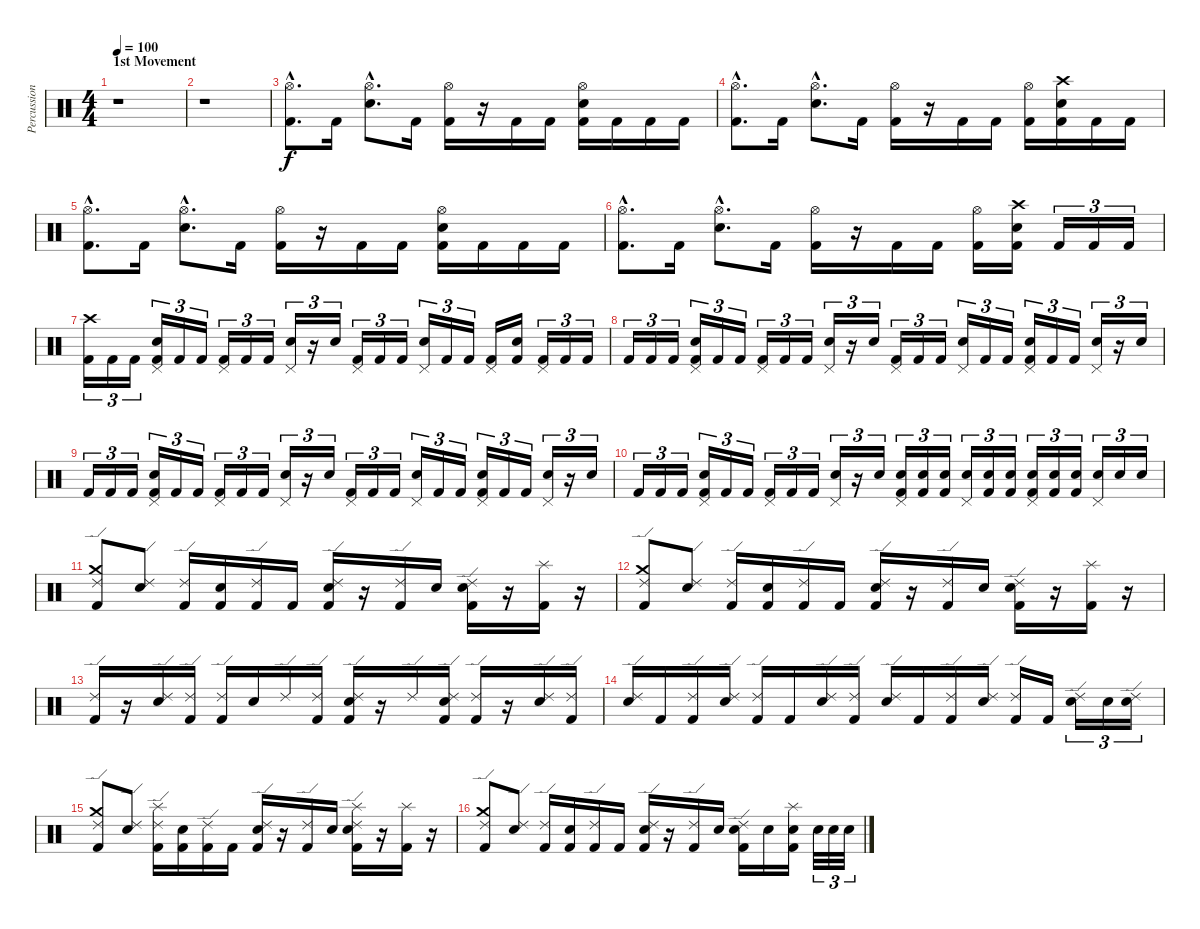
\track ("Percussion" "Percussion") {instrument percussion}
\staff {score}
\articulation defaults
\ts (4 4)
\section ("" "1st Movement")
\tempo 100
\clef neutral
\ks c
r.1{dy f} |
r.1 |
("Hi-Hat (open)"{hac} "Kick (hit) 2"{hac}).8{d} "Kick (hit) 2".16 ("Hi-Hat (open)"{hac} "Electric Snare (hit)"{hac}).8{d} "Kick (hit) 2".16 ("Hi-Hat (open)" "Kick (hit) 2").16 r.16 "Kick (hit) 2".16 "Kick (hit) 2".16 ("Hi-Hat (open)" "Electric Snare (hit)" "Kick (hit) 2").16 "Kick (hit) 2".16 "Kick (hit) 2".16 "Kick (hit) 2".16 |
("Hi-Hat (open)"{hac} "Kick (hit) 2"{hac}).8{d} "Kick (hit) 2".16 ("Hi-Hat (open)"{hac} "Electric Snare (hit)"{hac}).8{d} "Kick (hit) 2".16 ("Hi-Hat (open)" "Kick (hit) 2").16 r.16 "Kick (hit) 2".16 "Kick (hit) 2".16 ("Hi-Hat (open)" "Kick (hit) 2").16 ("Crash high (hit)" "Electric Snare (hit)" "Kick (hit) 2").16 "Kick (hit) 2".16 "Kick (hit) 2".16 |
("Hi-Hat (open)"{hac} "Kick (hit) 2"{hac}).8{d} "Kick (hit) 2".16 ("Hi-Hat (open)"{hac} "Electric Snare (hit)"{hac}).8{d} "Kick (hit) 2".16 ("Hi-Hat (open)" "Kick (hit) 2").16 r.16 "Kick (hit) 2".16 "Kick (hit) 2".16 ("Hi-Hat (open)" "Electric Snare (hit)" "Kick (hit) 2").16 "Kick (hit) 2".16 "Kick (hit) 2".16 "Kick (hit) 2".16 |
("Hi-Hat (open)"{hac} "Kick (hit) 2"{hac}).8{d} "Kick (hit) 2".16 ("Hi-Hat (open)"{hac} "Electric Snare (hit)"{hac}).8{d} "Kick (hit) 2".16 ("Hi-Hat (open)" "Kick (hit) 2").16 r.16 "Kick (hit) 2".16 "Kick (hit) 2".16 ("Hi-Hat (open)" "Kick (hit) 2").16 ("Crash high (hit)" "Electric Snare (hit)" "Kick (hit) 2").16 "Kick (hit) 2".16{tu (3 2)} "Kick (hit) 2".16{tu (3 2)} "Kick (hit) 2".16{tu (3 2)} |
("Crash high (hit)" "Kick (hit) 2").16{tu (3 2)} "Kick (hit) 2".16{tu (3 2)} "Kick (hit) 2".16{tu (3 2)} ("Pedal Hi-Hat (hit)" "Electric Snare (hit)" "Kick (hit) 2").16{tu (3 2)} "Kick (hit) 2".16{tu (3 2)} "Kick (hit) 2".16{tu (3 2)} ("Pedal Hi-Hat (hit)" "Kick (hit) 2").16{tu (3 2)} "Kick (hit) 2".16{tu (3 2)} "Kick (hit) 2".16{tu (3 2)} ("Pedal Hi-Hat (hit)" "Electric Snare (hit)").16{tu (3 2)} r.16{tu (3 2)} "Electric Snare (hit)".16{tu (3 2)} ("Pedal Hi-Hat (hit)" "Kick (hit) 2").16{tu (3 2)} "Kick (hit) 2".16{tu (3 2)} "Kick (hit) 2".16{tu (3 2)} ("Pedal Hi-Hat (hit)" "Electric Snare (hit)").16{tu (3 2)} "Kick (hit) 2".16{tu (3 2)} "Kick (hit) 2".16{tu (3 2)} ("Pedal Hi-Hat (hit)" "Kick (hit) 2").16 ("Electric Snare (hit)" "Kick (hit) 2").16 ("Pedal Hi-Hat (hit)" "Kick (hit) 2").16{tu (3 2)} "Kick (hit) 2".16{tu (3 2)} "Kick (hit) 2".16{tu (3 2)} |
"Kick (hit) 2".16{tu (3 2)} "Kick (hit) 2".16{tu (3 2)} "Kick (hit) 2".16{tu (3 2)} ("Pedal Hi-Hat (hit)" "Electric Snare (hit)" "Kick (hit) 2").16{tu (3 2)} "Kick (hit) 2".16{tu (3 2)} "Kick (hit) 2".16{tu (3 2)} ("Pedal Hi-Hat (hit)" "Kick (hit) 2").16{tu (3 2)} "Kick (hit) 2".16{tu (3 2)} "Kick (hit) 2".16{tu (3 2)} ("Pedal Hi-Hat (hit)" "Electric Snare (hit)").16{tu (3 2)} r.16{tu (3 2)} "Electric Snare (hit)".16{tu (3 2)} ("Pedal Hi-Hat (hit)" "Kick (hit) 2").16{tu (3 2)} "Kick (hit) 2".16{tu (3 2)} "Kick (hit) 2".16{tu (3 2)} ("Pedal Hi-Hat (hit)" "Electric Snare (hit)").16{tu (3 2)} "Kick (hit) 2".16{tu (3 2)} "Kick (hit) 2".16{tu (3 2)} ("Pedal Hi-Hat (hit)" "Electric Snare (hit)" "Kick (hit) 2").16{tu (3 2)} "Kick (hit) 2".16{tu (3 2)} "Kick (hit) 2".16{tu (3 2)} ("Pedal Hi-Hat (hit)" "Electric Snare (hit)").16{tu (3 2)} r.16{tu (3 2)} "Electric Snare (hit)".16{tu (3 2)} |
"Kick (hit) 2".16{tu (3 2)} "Kick (hit) 2".16{tu (3 2)} "Kick (hit) 2".16{tu (3 2)} ("Pedal Hi-Hat (hit)" "Electric Snare (hit)" "Kick (hit) 2").16{tu (3 2)} "Kick (hit) 2".16{tu (3 2)} "Kick (hit) 2".16{tu (3 2)} ("Pedal Hi-Hat (hit)" "Kick (hit) 2").16{tu (3 2)} "Kick (hit) 2".16{tu (3 2)} "Kick (hit) 2".16{tu (3 2)} ("Pedal Hi-Hat (hit)" "Electric Snare (hit)").16{tu (3 2)} r.16{tu (3 2)} "Electric Snare (hit)".16{tu (3 2)} ("Pedal Hi-Hat (hit)" "Kick (hit) 2").16{tu (3 2)} "Kick (hit) 2".16{tu (3 2)} "Kick (hit) 2".16{tu (3 2)} ("Pedal Hi-Hat (hit)" "Electric Snare (hit)").16{tu (3 2)} "Kick (hit) 2".16{tu (3 2)} "Kick (hit) 2".16{tu (3 2)} ("Pedal Hi-Hat (hit)" "Electric Snare (hit)" "Kick (hit) 2").16{tu (3 2)} "Kick (hit) 2".16{tu (3 2)} "Kick (hit) 2".16{tu (3 2)} ("Pedal Hi-Hat (hit)" "Electric Snare (hit)").16{tu (3 2)} r.16{tu (3 2)} "Electric Snare (hit)".16{tu (3 2)} |
"Kick (hit) 2".16{tu (3 2)} "Kick (hit) 2".16{tu (3 2)} "Kick (hit) 2".16{tu (3 2)} ("Pedal Hi-Hat (hit)" "Electric Snare (hit)" "Kick (hit) 2").16{tu (3 2)} "Kick (hit) 2".16{tu (3 2)} "Kick (hit) 2".16{tu (3 2)} ("Pedal Hi-Hat (hit)" "Kick (hit) 2").16{tu (3 2)} "Kick (hit) 2".16{tu (3 2)} "Kick (hit) 2".16{tu (3 2)} ("Pedal Hi-Hat (hit)" "Electric Snare (hit)").16{tu (3 2)} r.16{tu (3 2)} "Electric Snare (hit)".16{tu (3 2)} ("Pedal Hi-Hat (hit)" "Electric Snare (hit)" "Kick (hit) 2").16{tu (3 2)} ("Electric Snare (hit)" "Kick (hit) 2").16{tu (3 2)} ("Electric Snare (hit)" "Kick (hit) 2").16{tu (3 2)} ("Pedal Hi-Hat (hit)" "Electric Snare (hit)").16{tu (3 2)} ("Electric Snare (hit)" "Kick (hit) 2").16{tu (3 2)} ("Electric Snare (hit)" "Kick (hit) 2").16{tu (3 2)} ("Pedal Hi-Hat (hit)" "Electric Snare (hit)" "Kick (hit) 2").16{tu (3 2)} ("Electric Snare (hit)" "Kick (hit) 2").16{tu (3 2)} ("Electric Snare (hit)" "Kick (hit) 2").16{tu (3 2)} ("Pedal Hi-Hat (hit)" "Electric Snare (hit)").16{tu (3 2)} "Electric Snare (hit)".16{tu (3 2)} "Electric Snare (hit)".16{tu (3 2)} |
("Crash medium (hit)" "Ride (edge) 2" "Kick (hit) 2").8 ("Ride (edge) 2" "Electric Snare (hit)").8 ("Ride (edge) 2" "Kick (hit) 2").16 ("Electric Snare (hit)" "Kick (hit) 2").16 ("Ride (edge) 2" "Kick (hit) 2").16 "Kick (hit) 2".16 ("Ride (edge) 2" "Electric Snare (hit)" "Kick (hit) 2").16 r.16 ("Ride (edge) 2" "Kick (hit) 2").16 "Electric Snare (hit)".16 ("Ride (edge) 2" "Electric Snare (hit)" "Kick (hit) 2").16 r.16 ("Splash (hit)" "Kick (hit) 2").16 r.16 |
("Crash medium (hit)" "Ride (edge) 2" "Kick (hit) 2").8 ("Ride (edge) 2" "Electric Snare (hit)").8 ("Ride (edge) 2" "Kick (hit) 2").16 ("Electric Snare (hit)" "Kick (hit) 2").16 ("Ride (edge) 2" "Kick (hit) 2").16 "Kick (hit) 2".16 ("Ride (edge) 2" "Electric Snare (hit)" "Kick (hit) 2").16 r.16 ("Ride (edge) 2" "Kick (hit) 2").16 "Electric Snare (hit)".16 ("Ride (edge) 2" "Electric Snare (hit)" "Kick (hit) 2").16 r.16 ("Splash (hit)" "Kick (hit) 2").16 r.16 |
("Ride (edge) 2" "Kick (hit) 2").16 r.16 ("Ride (edge) 2" "Electric Snare (hit)").16 ("Ride (edge) 2" "Kick (hit) 2").16 ("Ride (edge) 2" "Kick (hit) 2").16 "Electric Snare (hit)".16 "Ride (edge) 2".16 ("Ride (edge) 2" "Kick (hit) 2").16 ("Ride (edge) 2" "Electric Snare (hit)" "Kick (hit) 2").16 r.16 "Ride (edge) 2".16 ("Ride (edge) 2" "Electric Snare (hit)" "Kick (hit) 2").16 ("Ride (edge) 2" "Kick (hit) 2").16 r.16 ("Ride (edge) 2" "Electric Snare (hit)").16 ("Ride (edge) 2" "Kick (hit) 2").16 |
("Ride (edge) 2" "Electric Snare (hit)").16 "Kick (hit) 2".16 ("Ride (edge) 2" "Kick (hit) 2").16 ("Ride (edge) 2" "Electric Snare (hit)").16 ("Ride (edge) 2" "Kick (hit) 2").16 "Kick (hit) 2".16 ("Ride (edge) 2" "Electric Snare (hit)").16 ("Ride (edge) 2" "Kick (hit) 2").16 ("Ride (edge) 2" "Electric Snare (hit)").16 "Kick (hit) 2".16 ("Ride (edge) 2" "Kick (hit) 2").16 ("Ride (edge) 2" "Electric Snare (hit)").16 ("Ride (edge) 2" "Kick (hit) 2").16 "Kick (hit) 2".16 ("Ride (edge) 2" "Electric Snare (hit)").16{tu (3 2)} "Electric Snare (hit)".16{tu (3 2)} ("Ride (edge) 2" "Electric Snare (hit)").16{tu (3 2)} |
("Crash medium (hit)" "Ride (edge) 2" "Kick (hit) 2").8 ("Ride (edge) 2" "Electric Snare (hit)").8 ("Splash (hit)" "Ride (edge) 2" "Kick (hit) 2").16 ("Electric Snare (hit)" "Kick (hit) 2").16 ("Ride (edge) 2" "Kick (hit) 2").16 "Kick (hit) 2".16 ("Ride (edge) 2" "Electric Snare (hit)" "Kick (hit) 2").16 r.16 ("Ride (edge) 2" "Kick (hit) 2").16 "Electric Snare (hit)".16 ("Splash (hit)" "Ride (edge) 2" "Electric Snare (hit)" "Kick (hit) 2").16 r.16 ("Splash (hit)" "Kick (hit) 2").16 r.16 |
("Crash medium (hit)" "Ride (edge) 2" "Kick (hit) 2").8 ("Ride (edge) 2" "Electric Snare (hit)").8 ("Ride (edge) 2" "Kick (hit) 2").16 ("Electric Snare (hit)" "Kick (hit) 2").16 ("Ride (edge) 2" "Kick (hit) 2").16 "Kick (hit) 2".16 ("Ride (edge) 2" "Electric Snare (hit)" "Kick (hit) 2").16 r.16 ("Ride (edge) 2" "Kick (hit) 2").16 "Electric Snare (hit)".16 ("Ride (edge) 2" "Electric Snare (hit)" "Kick (hit) 2").16 "Electric Snare (hit)".16 ("Splash (hit)" "Electric Snare (hit)" "Kick (hit) 2").16 "Electric Snare (hit)".32{tu (3 2)} "Electric Snare (hit)".32{tu (3 2)} "Electric Snare (hit)".32{tu (3 2)}
